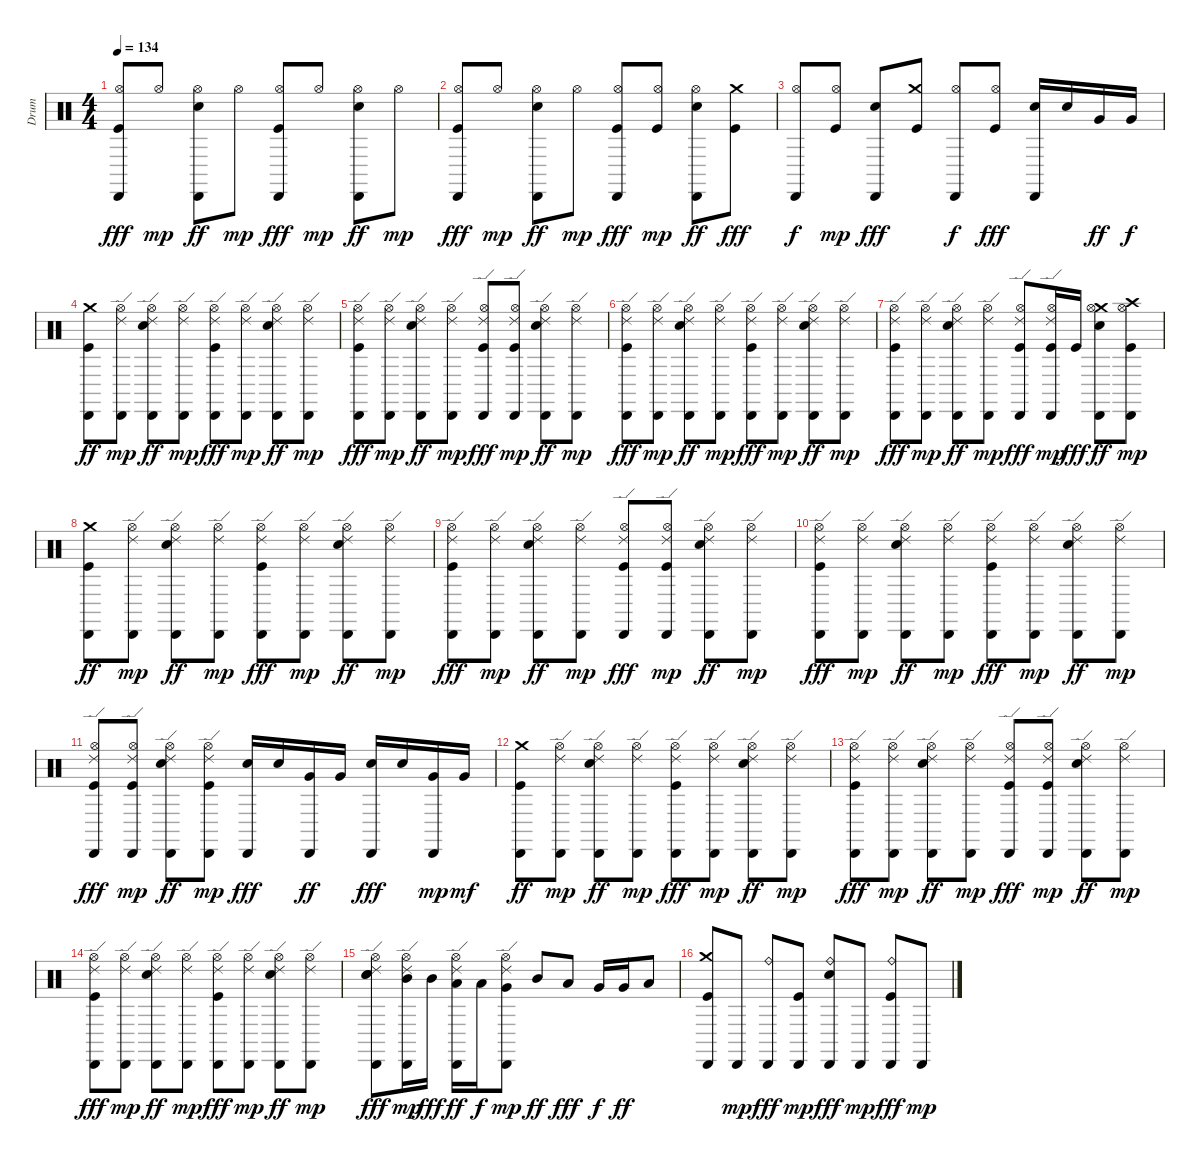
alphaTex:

\track ("Drum" "Drum") {instrument percussion}
\staff {score}
\articulation defaults
\ts (4 4)
\tempo 134
\clef neutral
\ks c
("Kick (hit)" "Hi-Hat (open)" "Cabasa (hit)").8{dy fff} "Hi-Hat (open)".8{dy mp} ("Electric Snare (hit)" "Cabasa (hit)" "Hi-Hat (open)").8{dy ff} "Hi-Hat (open)".8{dy mp} ("Cabasa (hit)" "Kick (hit)" "Hi-Hat (open)").8{dy fff} "Hi-Hat (open)".8{dy mp} ("Cabasa (hit)" "Electric Snare (hit)" "Hi-Hat (open)").8{dy ff} "Hi-Hat (open)".8{dy mp} |
("Kick (hit)" "Hi-Hat (open)" "Cabasa (hit)").8{dy fff} "Hi-Hat (open)".8{dy mp} ("Electric Snare (hit)" "Cabasa (hit)" "Hi-Hat (open)").8{dy ff} "Hi-Hat (open)".8{dy mp} ("Cabasa (hit)" "Kick (hit)" "Hi-Hat (open)").8{dy fff} ("Kick (hit)" "Hi-Hat (open)").8{dy mp} ("Cabasa (hit)" "Electric Snare (hit)" "Hi-Hat (open)").8{dy ff} ("Kick (hit)" "Crash medium (hit)").8{dy fff} |
("Cabasa (hit)" "Hi-Hat (open)").8{dy f} ("Kick (hit)" "Hi-Hat (open)").8{dy mp} ("Cabasa (hit)" "Electric Snare (hit)").8{dy fff} ("Crash medium (hit)" "Kick (hit)").8 ("Cabasa (hit)" "Hi-Hat (open)").8{dy f} ("Hi-Hat (open)" "Kick (hit)").8{dy fff} ("Cabasa (hit)" "Electric Snare (hit)").16 "Electric Snare (hit)".16 "Very Low Tom (hit)".16{dy ff} "Very Low Tom (hit)".16{dy f} |
("Cabasa (hit)" "Kick (hit)" "Crash medium (hit)").8{dy ff} ("Cabasa (hit)" "Ride (edge) 2" "Hi-Hat (open)").8{dy mp} ("Electric Snare (hit)" "Cabasa (hit)" "Ride (edge) 2" "Hi-Hat (open)").8{dy ff} ("Cabasa (hit)" "Ride (edge) 2" "Hi-Hat (open)").8{dy mp} ("Cabasa (hit)" "Ride (edge) 2" "Kick (hit)" "Hi-Hat (open)").8{dy fff} ("Cabasa (hit)" "Ride (edge) 2" "Hi-Hat (open)").8{dy mp} ("Electric Snare (hit)" "Cabasa (hit)" "Ride (edge) 2" "Hi-Hat (open)").8{dy ff} ("Cabasa (hit)" "Ride (edge) 2" "Hi-Hat (open)").8{dy mp} |
("Ride (edge) 2" "Kick (hit)" "Hi-Hat (open)" "Cabasa (hit)").8{dy fff} ("Cabasa (hit)" "Ride (edge) 2" "Hi-Hat (open)").8{dy mp} ("Electric Snare (hit)" "Cabasa (hit)" "Ride (edge) 2" "Hi-Hat (open)").8{dy ff} ("Cabasa (hit)" "Ride (edge) 2" "Hi-Hat (open)").8{dy mp} ("Cabasa (hit)" "Ride (edge) 2" "Kick (hit)" "Hi-Hat (open)").8{dy fff} ("Cabasa (hit)" "Kick (hit)" "Ride (edge) 2" "Hi-Hat (open)").8{dy mp} ("Cabasa (hit)" "Electric Snare (hit)" "Ride (edge) 2" "Hi-Hat (open)").8{dy ff} ("Cabasa (hit)" "Ride (edge) 2" "Hi-Hat (open)").8{dy mp} |
("Ride (edge) 2" "Kick (hit)" "Hi-Hat (open)" "Cabasa (hit)").8{dy fff} ("Cabasa (hit)" "Ride (edge) 2" "Hi-Hat (open)").8{dy mp} ("Electric Snare (hit)" "Cabasa (hit)" "Ride (edge) 2" "Hi-Hat (open)").8{dy ff} ("Cabasa (hit)" "Ride (edge) 2" "Hi-Hat (open)").8{dy mp} ("Cabasa (hit)" "Ride (edge) 2" "Kick (hit)" "Hi-Hat (open)").8{dy fff} ("Cabasa (hit)" "Ride (edge) 2" "Hi-Hat (open)").8{dy mp} ("Cabasa (hit)" "Electric Snare (hit)" "Ride (edge) 2" "Hi-Hat (open)").8{dy ff} ("Cabasa (hit)" "Ride (edge) 2" "Hi-Hat (open)").8{dy mp} |
("Cabasa (hit)" "Ride (edge) 2" "Kick (hit)" "Hi-Hat (open)").8{dy fff} ("Cabasa (hit)" "Ride (edge) 2" "Hi-Hat (open)").8{dy mp} ("Cabasa (hit)" "Electric Snare (hit)" "Ride (edge) 2" "Hi-Hat (open)").8{dy ff} ("Cabasa (hit)" "Ride (edge) 2" "Hi-Hat (open)").8{dy mp} ("Cabasa (hit)" "Ride (edge) 2" "Kick (hit)" "Hi-Hat (open)").8{dy fff} ("Cabasa (hit)" "Kick (hit)" "Ride (edge) 2" "Hi-Hat (open)").16{dy mp} "Kick (hit)".16{dy fff} ("Cabasa (hit)" "Electric Snare (hit)" "Crash medium (hit)" "Hi-Hat (open)").8{dy ff} ("Cabasa (hit)" "Kick (hit)" "Crash high (hit)" "Hi-Hat (open)").8{dy mp} |
("Cabasa (hit)" "Kick (hit)" "Crash medium (hit)").8{dy ff} ("Cabasa (hit)" "Ride (edge) 2" "Hi-Hat (open)").8{dy mp} ("Cabasa (hit)" "Electric Snare (hit)" "Ride (edge) 2" "Hi-Hat (open)").8{dy ff} ("Cabasa (hit)" "Ride (edge) 2" "Hi-Hat (open)").8{dy mp} ("Cabasa (hit)" "Ride (edge) 2" "Kick (hit)" "Hi-Hat (open)").8{dy fff} ("Cabasa (hit)" "Ride (edge) 2" "Hi-Hat (open)").8{dy mp} ("Cabasa (hit)" "Electric Snare (hit)" "Ride (edge) 2" "Hi-Hat (open)").8{dy ff} ("Cabasa (hit)" "Ride (edge) 2" "Hi-Hat (open)").8{dy mp} |
("Ride (edge) 2" "Kick (hit)" "Hi-Hat (open)" "Cabasa (hit)").8{dy fff} ("Cabasa (hit)" "Ride (edge) 2" "Hi-Hat (open)").8{dy mp} ("Electric Snare (hit)" "Cabasa (hit)" "Ride (edge) 2" "Hi-Hat (open)").8{dy ff} ("Cabasa (hit)" "Ride (edge) 2" "Hi-Hat (open)").8{dy mp} ("Cabasa (hit)" "Ride (edge) 2" "Kick (hit)" "Hi-Hat (open)").8{dy fff} ("Cabasa (hit)" "Kick (hit)" "Ride (edge) 2" "Hi-Hat (open)").8{dy mp} ("Cabasa (hit)" "Electric Snare (hit)" "Ride (edge) 2" "Hi-Hat (open)").8{dy ff} ("Cabasa (hit)" "Ride (edge) 2" "Hi-Hat (open)").8{dy mp} |
("Ride (edge) 2" "Kick (hit)" "Hi-Hat (open)" "Cabasa (hit)").8{dy fff} ("Cabasa (hit)" "Ride (edge) 2" "Hi-Hat (open)").8{dy mp} ("Electric Snare (hit)" "Cabasa (hit)" "Ride (edge) 2" "Hi-Hat (open)").8{dy ff} ("Cabasa (hit)" "Ride (edge) 2" "Hi-Hat (open)").8{dy mp} ("Cabasa (hit)" "Ride (edge) 2" "Kick (hit)" "Hi-Hat (open)").8{dy fff} ("Cabasa (hit)" "Ride (edge) 2" "Hi-Hat (open)").8{dy mp} ("Cabasa (hit)" "Electric Snare (hit)" "Ride (edge) 2" "Hi-Hat (open)").8{dy ff} ("Cabasa (hit)" "Ride (edge) 2" "Hi-Hat (open)").8{dy mp} |
("Ride (edge) 2" "Kick (hit)" "Hi-Hat (open)" "Cabasa (hit)").8{dy fff} ("Cabasa (hit)" "Kick (hit)" "Ride (edge) 2" "Hi-Hat (open)").8{dy mp} ("Electric Snare (hit)" "Cabasa (hit)" "Ride (edge) 2" "Hi-Hat (open)").8{dy ff} ("Cabasa (hit)" "Kick (hit)" "Ride (edge) 2" "Hi-Hat (open)").8{dy mp} ("Cabasa (hit)" "Electric Snare (hit)").16{dy fff} "Electric Snare (hit)".16 ("Cabasa (hit)" "Very Low Tom (hit)").16{dy ff} "Very Low Tom (hit)".16 ("Cabasa (hit)" "Electric Snare (hit)").16{dy fff} "Electric Snare (hit)".16 ("Cabasa (hit)" "Very Low Tom (hit)").16{dy mp} "Very Low Tom (hit)".16{dy mf} |
("Kick (hit)" "Crash medium (hit)" "Cabasa (hit)").8{dy ff} ("Cabasa (hit)" "Ride (edge) 2" "Hi-Hat (open)").8{dy mp} ("Electric Snare (hit)" "Cabasa (hit)" "Ride (edge) 2" "Hi-Hat (open)").8{dy ff} ("Cabasa (hit)" "Ride (edge) 2" "Hi-Hat (open)").8{dy mp} ("Cabasa (hit)" "Ride (edge) 2" "Kick (hit)" "Hi-Hat (open)").8{dy fff} ("Cabasa (hit)" "Ride (edge) 2" "Hi-Hat (open)").8{dy mp} ("Cabasa (hit)" "Electric Snare (hit)" "Ride (edge) 2" "Hi-Hat (open)").8{dy ff} ("Cabasa (hit)" "Ride (edge) 2" "Hi-Hat (open)").8{dy mp} |
("Cabasa (hit)" "Ride (edge) 2" "Kick (hit)" "Hi-Hat (open)").8{dy fff} ("Cabasa (hit)" "Ride (edge) 2" "Hi-Hat (open)").8{dy mp} ("Cabasa (hit)" "Electric Snare (hit)" "Ride (edge) 2" "Hi-Hat (open)").8{dy ff} ("Cabasa (hit)" "Ride (edge) 2" "Hi-Hat (open)").8{dy mp} ("Cabasa (hit)" "Ride (edge) 2" "Kick (hit)" "Hi-Hat (open)").8{dy fff} ("Cabasa (hit)" "Kick (hit)" "Ride (edge) 2" "Hi-Hat (open)").8{dy mp} ("Cabasa (hit)" "Electric Snare (hit)" "Ride (edge) 2" "Hi-Hat (open)").8{dy ff} ("Cabasa (hit)" "Ride (edge) 2" "Hi-Hat (open)").8{dy mp} |
("Cabasa (hit)" "Ride (edge) 2" "Kick (hit)" "Hi-Hat (open)").8{dy fff} ("Cabasa (hit)" "Ride (edge) 2" "Hi-Hat (open)").8{dy mp} ("Cabasa (hit)" "Electric Snare (hit)" "Ride (edge) 2" "Hi-Hat (open)").8{dy ff} ("Cabasa (hit)" "Ride (edge) 2" "Hi-Hat (open)").8{dy mp} ("Cabasa (hit)" "Ride (edge) 2" "Kick (hit)" "Hi-Hat (open)").8{dy fff} ("Cabasa (hit)" "Ride (edge) 2" "Hi-Hat (open)").8{dy mp} ("Cabasa (hit)" "Electric Snare (hit)" "Ride (edge) 2" "Hi-Hat (open)").8{dy ff} ("Cabasa (hit)" "Ride (edge) 2" "Hi-Hat (open)").8{dy mp} |
("Electric Snare (hit)" "Ride (edge) 2" "Hi-Hat (open)" "Cabasa (hit)" "Electric Snare (hit)").8{dy fff} ("Cabasa (hit)" "Mid Tom (hit)" "Ride (edge) 2" "Hi-Hat (open)").16{dy mp} "Mid Tom (hit)".16{dy fff} ("Cabasa (hit)" "Low Tom (hit)" "Ride (edge) 2" "Hi-Hat (open)").16{dy ff} "Low Tom (hit)".16{dy f} ("Cabasa (hit)" "Very Low Tom (hit)" "Ride (edge) 2" "Hi-Hat (open)").8{dy mp} "Mid Tom (hit)".8{dy ff} "Low Tom (hit)".8{dy fff} "Very Low Tom (hit)".16{dy f} "Very Low Tom (hit)".16{dy ff} "Low Floor Tom (hit)".8 |
("Kick (hit)" "Crash medium (hit)" "Cabasa (hit)").8 "Cabasa (hit)".8{dy mp} ("Ride (bell)" "Cabasa (hit)").8{dy fff} ("Kick (hit)" "Cabasa (hit)").8{dy mp} ("Electric Snare (hit)" "Ride (bell)" "Cabasa (hit)").8{dy fff} "Cabasa (hit)".8{dy mp} ("Kick (hit)" "Ride (bell)" "Cabasa (hit)").8{dy fff} "Cabasa (hit)".8{dy mp}
